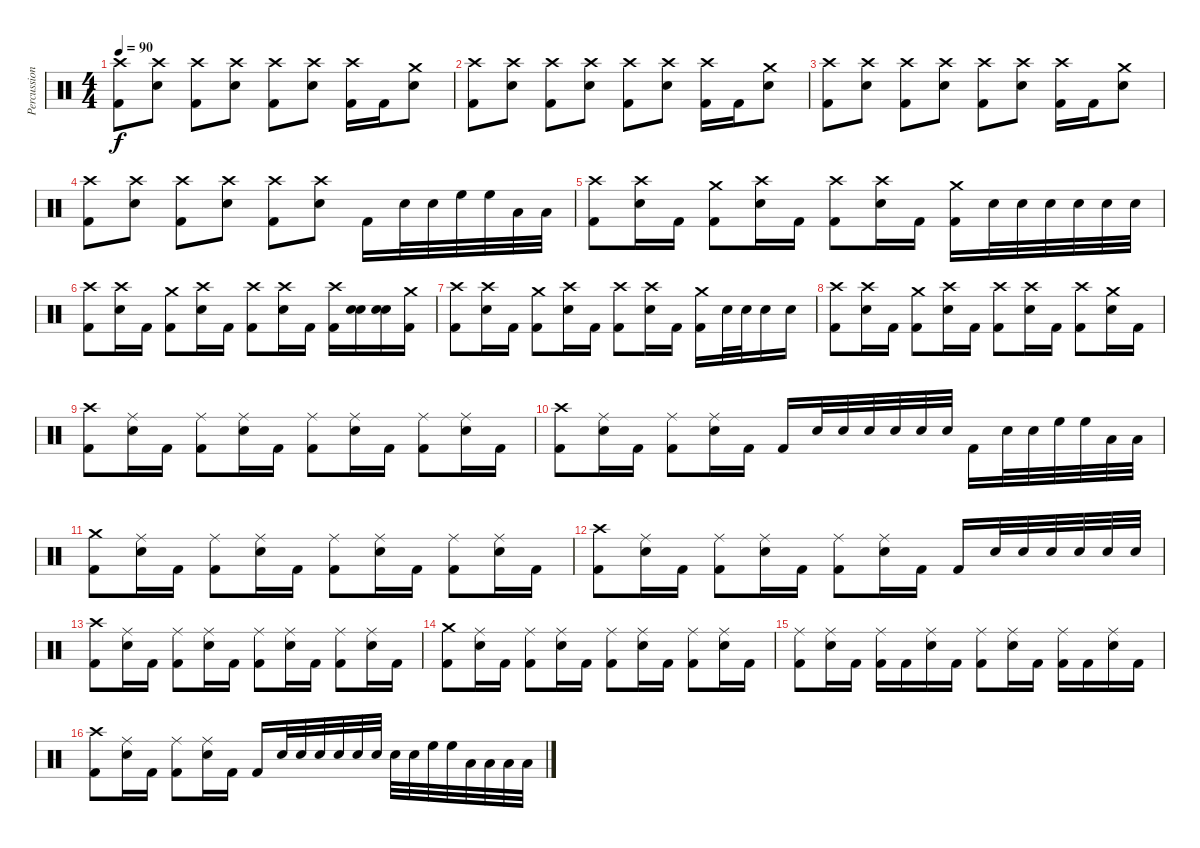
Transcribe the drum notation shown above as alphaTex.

\track ("Percussion" "Percussion") {instrument percussion}
\staff {score}
\articulation defaults
\ts (4 4)
\tempo 90
\clef neutral
\ks c
("Crash high (hit)" "Kick (hit) 2").8{dy f} ("Crash high (hit)" "Snare (hit) 2").8 ("Crash high (hit)" "Kick (hit) 2").8 ("Crash high (hit)" "Snare (hit) 2").8 ("Crash high (hit)" "Kick (hit) 2").8 ("Crash high (hit)" "Snare (hit) 2").8 ("Crash high (hit)" "Kick (hit) 2").16 "Kick (hit) 2".16 ("Crash medium (hit)" "Snare (hit) 2").8 |
("Crash high (hit)" "Kick (hit) 2").8 ("Crash high (hit)" "Snare (hit) 2").8 ("Crash high (hit)" "Kick (hit) 2").8 ("Crash high (hit)" "Snare (hit) 2").8 ("Crash high (hit)" "Kick (hit) 2").8 ("Crash high (hit)" "Snare (hit) 2").8 ("Crash high (hit)" "Kick (hit) 2").16 "Kick (hit) 2".16 ("Crash medium (hit)" "Snare (hit) 2").8 |
("Crash high (hit)" "Kick (hit) 2").8 ("Crash high (hit)" "Snare (hit) 2").8 ("Crash high (hit)" "Kick (hit) 2").8 ("Crash high (hit)" "Snare (hit) 2").8 ("Crash high (hit)" "Kick (hit) 2").8 ("Crash high (hit)" "Snare (hit) 2").8 ("Crash high (hit)" "Kick (hit) 2").16 "Kick (hit) 2".16 ("Crash medium (hit)" "Snare (hit) 2").8 |
("Crash high (hit)" "Kick (hit) 2").8 ("Crash high (hit)" "Snare (hit) 2").8 ("Crash high (hit)" "Kick (hit) 2").8 ("Crash high (hit)" "Snare (hit) 2").8 ("Crash high (hit)" "Kick (hit) 2").8 ("Crash high (hit)" "Snare (hit) 2").8 "Kick (hit) 2".16 "Snare (hit) 2".32 "Snare (hit) 2".32 "High Floor Tom (hit)".32 "High Floor Tom (hit)".32 "Low Floor Tom (hit)".32 "Low Floor Tom (hit)".32 |
("Crash high (hit)" "Kick (hit) 2").8 ("Crash high (hit)" "Snare (hit) 2").16 "Kick (hit) 2".16 ("Crash medium (hit)" "Kick (hit) 2").8 ("Crash high (hit)" "Snare (hit) 2").16 "Kick (hit) 2".16 ("Crash high (hit)" "Kick (hit) 2").8 ("Crash high (hit)" "Snare (hit) 2").16 "Kick (hit) 2".16 ("Crash medium (hit)" "Kick (hit) 2").16 "Snare (hit) 2".32 "Snare (hit) 2".32 "Snare (hit) 2".32 "Snare (hit) 2".32 "Snare (hit) 2".32 "Snare (hit) 2".32 |
("Crash high (hit)" "Kick (hit) 2").8 ("Crash high (hit)" "Snare (hit) 2").16 "Kick (hit) 2".16 ("Crash medium (hit)" "Kick (hit) 2").8 ("Crash high (hit)" "Snare (hit) 2").16 "Kick (hit) 2".16 ("Crash high (hit)" "Kick (hit) 2").8 ("Crash high (hit)" "Snare (hit) 2").16 "Kick (hit) 2".16 ("Crash high (hit)" "Kick (hit) 2").16 ("Snare (hit) 2" "Snare (hit) 2").16 ("Snare (hit) 2" "Snare (hit) 2").16 ("Crash medium (hit)" "Kick (hit) 2").16 |
("Crash high (hit)" "Kick (hit) 2").8 ("Crash high (hit)" "Snare (hit) 2").16 "Kick (hit) 2".16 ("Crash medium (hit)" "Kick (hit) 2").8 ("Crash high (hit)" "Snare (hit) 2").16 "Kick (hit) 2".16 ("Crash high (hit)" "Kick (hit) 2").8 ("Crash high (hit)" "Snare (hit) 2").16 "Kick (hit) 2".16 ("Crash medium (hit)" "Kick (hit) 2").16 "Snare (hit) 2".32 "Snare (hit) 2".32 "Snare (hit) 2".16 "Snare (hit) 2".16 |
("Crash high (hit)" "Kick (hit) 2").8 ("Crash high (hit)" "Snare (hit) 2").16 "Kick (hit) 2".16 ("Crash medium (hit)" "Kick (hit) 2").8 ("Crash high (hit)" "Snare (hit) 2").16 "Kick (hit) 2".16 ("Crash high (hit)" "Kick (hit) 2").8 ("Crash high (hit)" "Snare (hit) 2").16 "Kick (hit) 2".16 ("Crash high (hit)" "Kick (hit) 2").8 ("Crash medium (hit)" "Snare (hit) 2").16 "Kick (hit) 2".16 |
("Crash high (hit)" "Kick (hit) 2").8 ("Ride (middle)" "Snare (hit) 2").16 "Kick (hit) 2".16 ("Ride (middle)" "Kick (hit) 2").8 ("Ride (middle)" "Snare (hit) 2").16 "Kick (hit) 2".16 ("Ride (middle)" "Kick (hit) 2").8 ("Ride (middle)" "Snare (hit) 2").16 "Kick (hit) 2".16 ("Ride (middle)" "Kick (hit) 2").8 ("Ride (middle)" "Snare (hit) 2").16 "Kick (hit) 2".16 |
("Crash high (hit)" "Kick (hit) 2").8 ("Ride (middle)" "Snare (hit) 2").16 "Kick (hit) 2".16 ("Ride (middle)" "Kick (hit) 2").8 ("Ride (middle)" "Snare (hit) 2").16 "Kick (hit) 2".16 "Kick (hit) 2".16 "Snare (hit) 2".32 "Snare (hit) 2".32 "Snare (hit) 2".32 "Snare (hit) 2".32 "Snare (hit) 2".32 "Snare (hit) 2".32 "Kick (hit) 2".16 "Snare (hit) 2".32 "Snare (hit) 2".32 "High Floor Tom (hit)".32 "High Floor Tom (hit)".32 "Low Floor Tom (hit)".32 "Low Floor Tom (hit)".32 |
("Crash medium (hit)" "Kick (hit) 2").8 ("Ride (middle)" "Snare (hit) 2").16 "Kick (hit) 2".16 ("Ride (middle)" "Kick (hit) 2").8 ("Ride (middle)" "Snare (hit) 2").16 "Kick (hit) 2".16 ("Ride (middle)" "Kick (hit) 2").8 ("Ride (middle)" "Snare (hit) 2").16 "Kick (hit) 2".16 ("Ride (middle)" "Kick (hit) 2").8 ("Ride (middle)" "Snare (hit) 2").16 "Kick (hit) 2".16 |
("Crash high (hit)" "Kick (hit) 2").8 ("Ride (middle)" "Snare (hit) 2").16 "Kick (hit) 2".16 ("Ride (middle)" "Kick (hit) 2").8 ("Ride (middle)" "Snare (hit) 2").16 "Kick (hit) 2".16 ("Ride (middle)" "Kick (hit) 2").8 ("Ride (middle)" "Snare (hit) 2").16 "Kick (hit) 2".16 "Kick (hit) 2".16 "Snare (hit) 2".32 "Snare (hit) 2".32 "Snare (hit) 2".32 "Snare (hit) 2".32 "Snare (hit) 2".32 "Snare (hit) 2".32 |
("Crash high (hit)" "Kick (hit) 2").8 ("Ride (middle)" "Snare (hit) 2").16 "Kick (hit) 2".16 ("Ride (middle)" "Kick (hit) 2").8 ("Ride (middle)" "Snare (hit) 2").16 "Kick (hit) 2".16 ("Ride (middle)" "Kick (hit) 2").8 ("Ride (middle)" "Snare (hit) 2").16 "Kick (hit) 2".16 ("Ride (middle)" "Kick (hit) 2").8 ("Ride (middle)" "Snare (hit) 2").16 "Kick (hit) 2".16 |
("Crash medium (hit)" "Kick (hit) 2").8 ("Ride (middle)" "Snare (hit) 2").16 "Kick (hit) 2".16 ("Ride (middle)" "Kick (hit) 2").8 ("Ride (middle)" "Snare (hit) 2").16 "Kick (hit) 2".16 ("Ride (middle)" "Kick (hit) 2").8 ("Ride (middle)" "Snare (hit) 2").16 "Kick (hit) 2".16 ("Ride (middle)" "Kick (hit) 2").8 ("Ride (middle)" "Snare (hit) 2").16 "Kick (hit) 2".16 |
("Ride (middle)" "Kick (hit) 2").8 ("Ride (middle)" "Snare (hit) 2").16 "Kick (hit) 2".16 ("Ride (middle)" "Kick (hit) 2").16 "Kick (hit) 2".16 ("Ride (middle)" "Snare (hit) 2").16 "Kick (hit) 2".16 ("Ride (middle)" "Kick (hit) 2").8 ("Ride (middle)" "Snare (hit) 2").16 "Kick (hit) 2".16 ("Ride (middle)" "Kick (hit) 2").16 "Kick (hit) 2".16 ("Ride (middle)" "Snare (hit) 2").16 "Kick (hit) 2".16 |
("Crash high (hit)" "Kick (hit) 2").8 ("Ride (middle)" "Snare (hit) 2").16 "Kick (hit) 2".16 ("Ride (middle)" "Kick (hit) 2").8 ("Ride (middle)" "Snare (hit) 2").16 "Kick (hit) 2".16 "Kick (hit) 2".16 "Snare (hit) 2".32 "Snare (hit) 2".32 "Snare (hit) 2".32 "Snare (hit) 2".32 "Snare (hit) 2".32 "Snare (hit) 2".32 "Snare (hit) 2".32 "Snare (hit) 2".32 "High Floor Tom (hit)".32 "High Floor Tom (hit)".32 "Low Tom (hit)".32 "Low Tom (hit)".32 "Low Floor Tom (hit)".32 "Low Floor Tom (hit)".32
